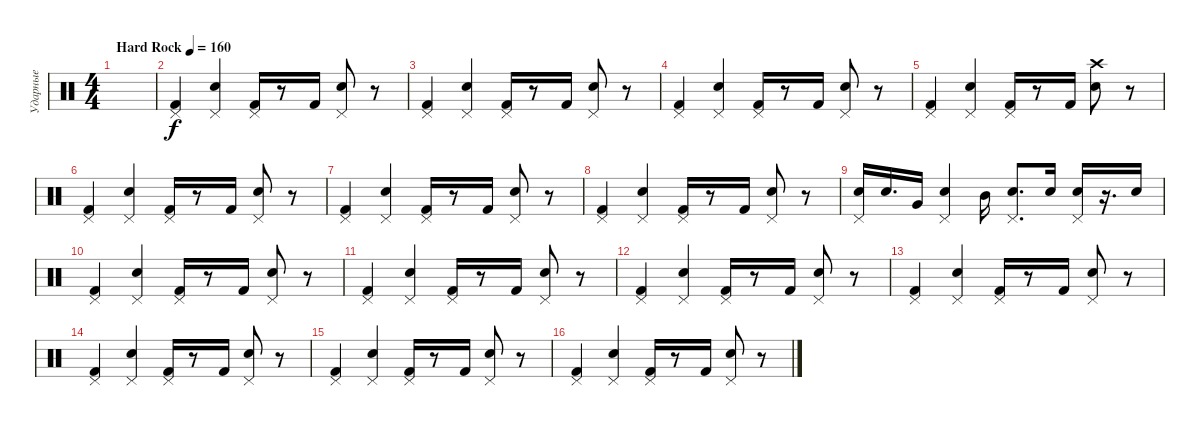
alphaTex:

\track ("Ударные" "Ударные") {instrument percussion}
\staff {score}
\articulation defaults
\ts (4 4)
\tempo (160 "Hard Rock")
\clef neutral
\ks c
|
("Pedal Hi-Hat (hit)" "Kick (hit) 2").4 ("Pedal Hi-Hat (hit)" "Snare (hit) 2").4 ("Pedal Hi-Hat (hit)" "Kick (hit) 2").16 r.8 "Kick (hit) 2".16 ("Pedal Hi-Hat (hit)" "Snare (hit) 2").8 r.8 |
("Pedal Hi-Hat (hit)" "Kick (hit) 2").4 ("Pedal Hi-Hat (hit)" "Snare (hit) 2").4 ("Pedal Hi-Hat (hit)" "Kick (hit) 2").16 r.8 "Kick (hit) 2".16 ("Pedal Hi-Hat (hit)" "Snare (hit) 2").8 r.8 |
("Pedal Hi-Hat (hit)" "Kick (hit) 2").4 ("Pedal Hi-Hat (hit)" "Snare (hit) 2").4 ("Pedal Hi-Hat (hit)" "Kick (hit) 2").16 r.8 "Kick (hit) 2".16 ("Pedal Hi-Hat (hit)" "Snare (hit) 2").8 r.8 |
("Pedal Hi-Hat (hit)" "Kick (hit) 2").4 ("Pedal Hi-Hat (hit)" "Snare (hit) 2").4 ("Pedal Hi-Hat (hit)" "Kick (hit) 2").16 r.8 "Kick (hit) 2".16 ("Crash high (hit)" "Snare (hit) 2").8 r.8 |
("Pedal Hi-Hat (hit)" "Kick (hit) 2").4 ("Pedal Hi-Hat (hit)" "Snare (hit) 2").4 ("Pedal Hi-Hat (hit)" "Kick (hit) 2").16 r.8 "Kick (hit) 2".16 ("Pedal Hi-Hat (hit)" "Snare (hit) 2").8 r.8 |
("Pedal Hi-Hat (hit)" "Kick (hit) 2").4 ("Pedal Hi-Hat (hit)" "Snare (hit) 2").4 ("Pedal Hi-Hat (hit)" "Kick (hit) 2").16 r.8 "Kick (hit) 2".16 ("Pedal Hi-Hat (hit)" "Snare (hit) 2").8 r.8 |
("Pedal Hi-Hat (hit)" "Kick (hit) 2").4 ("Pedal Hi-Hat (hit)" "Snare (hit) 2").4 ("Pedal Hi-Hat (hit)" "Kick (hit) 2").16 r.8 "Kick (hit) 2".16 ("Pedal Hi-Hat (hit)" "Snare (hit) 2").8 r.8 |
("Pedal Hi-Hat (hit)" "Snare (hit) 2").16 "Snare (hit) 2".16{d} "Very Low Tom (hit)".16 ("Pedal Hi-Hat (hit)" "Snare (hit) 2").4 "Mid Tom (hit)".16 ("Pedal Hi-Hat (hit)" "Snare (hit) 2").8{d} "Snare (hit) 2".16 ("Pedal Hi-Hat (hit)" "Snare (hit) 2").16 r.16{d} "Snare (hit) 2".16 |
("Pedal Hi-Hat (hit)" "Kick (hit) 2").4 ("Pedal Hi-Hat (hit)" "Snare (hit) 2").4 ("Pedal Hi-Hat (hit)" "Kick (hit) 2").16 r.8 "Kick (hit) 2".16 ("Pedal Hi-Hat (hit)" "Snare (hit) 2").8 r.8 |
("Pedal Hi-Hat (hit)" "Kick (hit) 2").4 ("Pedal Hi-Hat (hit)" "Snare (hit) 2").4 ("Pedal Hi-Hat (hit)" "Kick (hit) 2").16 r.8 "Kick (hit) 2".16 ("Pedal Hi-Hat (hit)" "Snare (hit) 2").8 r.8 |
("Pedal Hi-Hat (hit)" "Kick (hit) 2").4 ("Pedal Hi-Hat (hit)" "Snare (hit) 2").4 ("Pedal Hi-Hat (hit)" "Kick (hit) 2").16 r.8 "Kick (hit) 2".16 ("Pedal Hi-Hat (hit)" "Snare (hit) 2").8 r.8 |
("Pedal Hi-Hat (hit)" "Kick (hit) 2").4 ("Pedal Hi-Hat (hit)" "Snare (hit) 2").4 ("Pedal Hi-Hat (hit)" "Kick (hit) 2").16 r.8 "Kick (hit) 2".16 ("Pedal Hi-Hat (hit)" "Snare (hit) 2").8 r.8 |
("Pedal Hi-Hat (hit)" "Kick (hit) 2").4 ("Pedal Hi-Hat (hit)" "Snare (hit) 2").4 ("Pedal Hi-Hat (hit)" "Kick (hit) 2").16 r.8 "Kick (hit) 2".16 ("Pedal Hi-Hat (hit)" "Snare (hit) 2").8 r.8 |
("Pedal Hi-Hat (hit)" "Kick (hit) 2").4 ("Pedal Hi-Hat (hit)" "Snare (hit) 2").4 ("Pedal Hi-Hat (hit)" "Kick (hit) 2").16 r.8 "Kick (hit) 2".16 ("Pedal Hi-Hat (hit)" "Snare (hit) 2").8 r.8 |
("Pedal Hi-Hat (hit)" "Kick (hit) 2").4 ("Pedal Hi-Hat (hit)" "Snare (hit) 2").4 ("Pedal Hi-Hat (hit)" "Kick (hit) 2").16 r.8 "Kick (hit) 2".16 ("Pedal Hi-Hat (hit)" "Snare (hit) 2").8 r.8
